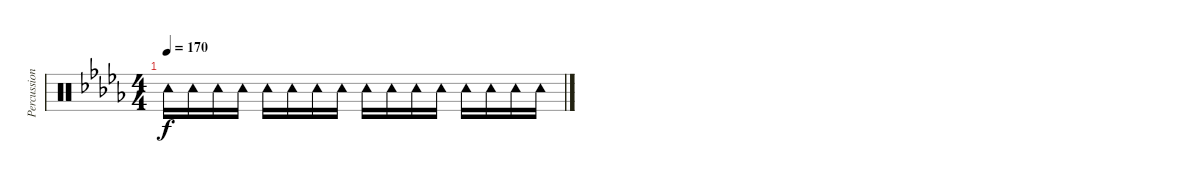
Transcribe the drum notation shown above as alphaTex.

\track ("Percussion" "Percussion") {instrument percussion}
\staff {score}
\articulation defaults
\ts (4 4)
\tempo 170
\clef neutral
\ks db "Tambourine (hit)".16{dy f} "Tambourine (hit)".16 "Tambourine (hit)".16 "Tambourine (hit)".16 "Tambourine (hit)".16 "Tambourine (hit)".16 "Tambourine (hit)".16 "Tambourine (hit)".16 "Tambourine (hit)".16 "Tambourine (hit)".16 "Tambourine (hit)".16 "Tambourine (hit)".16 "Tambourine (hit)".16 "Tambourine (hit)".16 "Tambourine (hit)".16 "Tambourine (hit)".16
